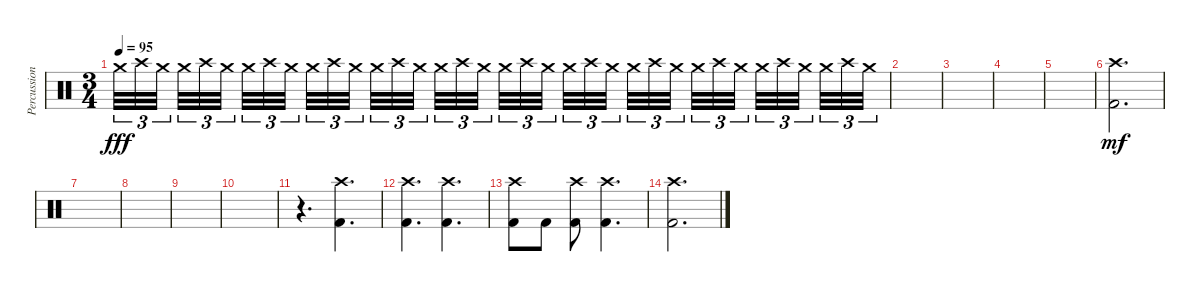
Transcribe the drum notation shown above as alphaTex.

\track ("Percussion" "Percussion") {instrument percussion}
\staff {score}
\articulation defaults
\ts (3 4)
\tempo 95
\clef neutral
\ks c "Crash medium (hit)".32{tu (3 2) dy fff volume 0} "Crash high (hit)".32{tu (3 2) volume 13} "Crash medium (hit)".32{tu (3 2) beam splitsecondary} "Crash medium (hit)".32{tu (3 2)} "Crash high (hit)".32{tu (3 2)} "Crash medium (hit)".32{tu (3 2) beam splitsecondary} "Crash medium (hit)".32{tu (3 2)} "Crash high (hit)".32{tu (3 2)} "Crash medium (hit)".32{tu (3 2) beam splitsecondary} "Crash medium (hit)".32{tu (3 2)} "Crash high (hit)".32{tu (3 2)} "Crash medium (hit)".32{tu (3 2)} "Crash medium (hit)".32{tu (3 2)} "Crash high (hit)".32{tu (3 2)} "Crash medium (hit)".32{tu (3 2) beam splitsecondary} "Crash medium (hit)".32{tu (3 2)} "Crash high (hit)".32{tu (3 2)} "Crash medium (hit)".32{tu (3 2) beam splitsecondary} "Crash medium (hit)".32{tu (3 2)} "Crash high (hit)".32{tu (3 2)} "Crash medium (hit)".32{tu (3 2) beam splitsecondary} "Crash medium (hit)".32{tu (3 2)} "Crash high (hit)".32{tu (3 2)} "Crash medium (hit)".32{tu (3 2)} "Crash medium (hit)".32{tu (3 2)} "Crash high (hit)".32{tu (3 2)} "Crash medium (hit)".32{tu (3 2) beam splitsecondary} "Crash medium (hit)".32{tu (3 2)} "Crash high (hit)".32{tu (3 2)} "Crash medium (hit)".32{tu (3 2) beam splitsecondary} "Crash medium (hit)".32{tu (3 2)} "Crash high (hit)".32{tu (3 2)} "Crash medium (hit)".32{tu (3 2) beam splitsecondary} "Crash medium (hit)".32{tu (3 2)} "Crash high (hit)".32{tu (3 2)} "Crash medium (hit)".32{tu (3 2)}
|
|
|
|
|
("Crash high (hit)" "Kick (hit) 2").2{d dy mf} |
|
|
|
|
r.4{d} ("Crash high (hit)" "Kick (hit) 2").4{d} |
("Crash high (hit)" "Kick (hit) 2").4{d} ("Crash high (hit)" "Kick (hit) 2").4{d} |
("Crash high (hit)" "Kick (hit) 2").8 "Kick (hit) 2".8 ("Crash high (hit)" "Kick (hit) 2").8 ("Crash high (hit)" "Kick (hit) 2").4{d} |
("Crash high (hit)" "Kick (hit) 2").2{d}
